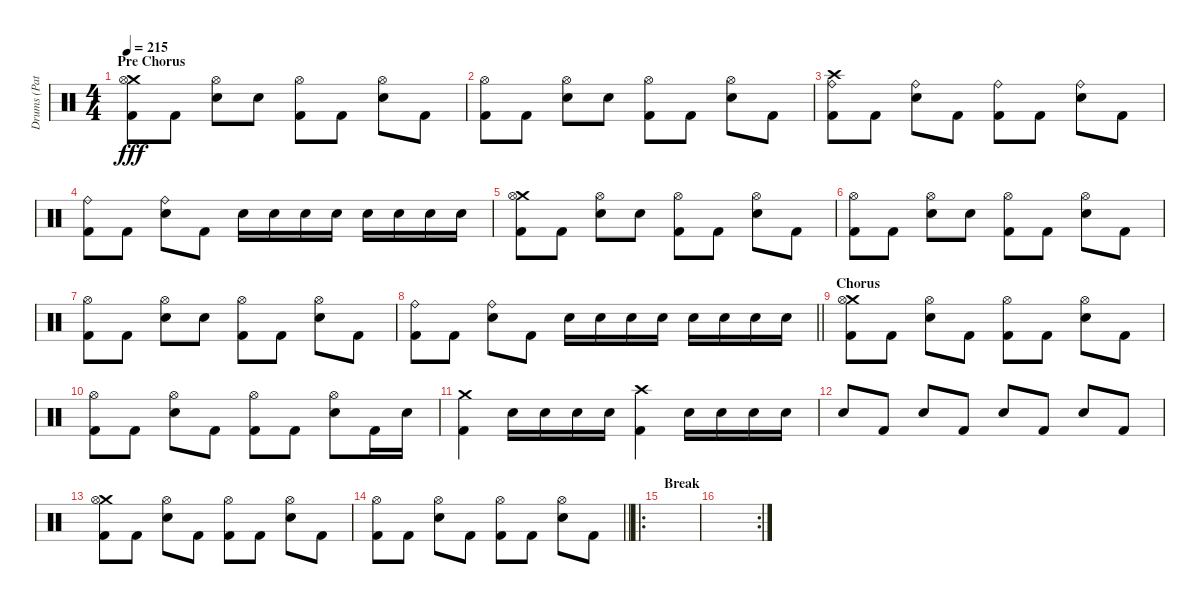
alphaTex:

\track ("Drums (Pat Thetic)" "Drums (Pat") {instrument percussion}
\staff {score}
\articulation defaults
\ts (4 4)
\section ("" "Pre Chorus")
\tempo 215
\clef neutral
\ks c
("Crash medium (hit)" "Hi-Hat (open)" "Kick (hit) 2").8{dy fff} "Kick (hit) 2".8 ("Hi-Hat (open)" "Snare (hit) 2").8 "Snare (hit) 2".8 ("Hi-Hat (open)" "Kick (hit) 2").8 "Kick (hit) 2".8 ("Hi-Hat (open)" "Snare (hit) 2").8 "Kick (hit) 2".8 |
("Hi-Hat (open)" "Kick (hit) 2").8 "Kick (hit) 2".8 ("Hi-Hat (open)" "Snare (hit) 2").8 "Snare (hit) 2".8 ("Hi-Hat (open)" "Kick (hit) 2").8 "Kick (hit) 2".8 ("Hi-Hat (open)" "Snare (hit) 2").8 "Kick (hit) 2".8 |
("Crash high (hit)" "Ride (bell)" "Kick (hit) 2").8 "Kick (hit) 2".8 ("Ride (bell)" "Snare (hit) 2").8 "Kick (hit) 2".8 ("Ride (bell)" "Kick (hit) 2").8 "Kick (hit) 2".8 ("Ride (bell)" "Snare (hit) 2").8 "Kick (hit) 2".8 |
("Ride (bell)" "Kick (hit) 2").8 "Kick (hit) 2".8 ("Ride (bell)" "Snare (hit) 2").8 "Kick (hit) 2".8 "Snare (hit) 2".16 "Snare (hit) 2".16 "Snare (hit) 2".16 "Snare (hit) 2".16 "Snare (hit) 2".16 "Snare (hit) 2".16 "Snare (hit) 2".16 "Snare (hit) 2".16 |
("Crash medium (hit)" "Hi-Hat (open)" "Kick (hit) 2").8 "Kick (hit) 2".8 ("Hi-Hat (open)" "Snare (hit) 2").8 "Snare (hit) 2".8 ("Hi-Hat (open)" "Kick (hit) 2").8 "Kick (hit) 2".8 ("Hi-Hat (open)" "Snare (hit) 2").8 "Kick (hit) 2".8 |
("Hi-Hat (open)" "Kick (hit) 2").8 "Kick (hit) 2".8 ("Hi-Hat (open)" "Snare (hit) 2").8 "Snare (hit) 2".8 ("Hi-Hat (open)" "Kick (hit) 2").8 "Kick (hit) 2".8 ("Hi-Hat (open)" "Snare (hit) 2").8 "Kick (hit) 2".8 |
("Hi-Hat (open)" "Kick (hit) 2").8 "Kick (hit) 2".8 ("Hi-Hat (open)" "Snare (hit) 2").8 "Snare (hit) 2".8 ("Hi-Hat (open)" "Kick (hit) 2").8 "Kick (hit) 2".8 ("Hi-Hat (open)" "Snare (hit) 2").8 "Kick (hit) 2".8 |
\barLineRight lightlight
("Ride (bell)" "Kick (hit) 2").8 "Kick (hit) 2".8 ("Ride (bell)" "Snare (hit) 2").8 "Kick (hit) 2".8 "Snare (hit) 2".16 "Snare (hit) 2".16 "Snare (hit) 2".16 "Snare (hit) 2".16 "Snare (hit) 2".16 "Snare (hit) 2".16 "Snare (hit) 2".16 "Snare (hit) 2".16 |
\section ("" "Chorus")
("Crash medium (hit)" "Hi-Hat (open)" "Kick (hit) 2").8 "Kick (hit) 2".8 ("Hi-Hat (open)" "Snare (hit) 2").8 "Kick (hit) 2".8 ("Hi-Hat (open)" "Kick (hit) 2").8 "Kick (hit) 2".8 ("Hi-Hat (open)" "Snare (hit) 2").8 "Kick (hit) 2".8 |
("Hi-Hat (open)" "Kick (hit) 2").8 "Kick (hit) 2".8 ("Hi-Hat (open)" "Snare (hit) 2").8 "Kick (hit) 2".8 ("Hi-Hat (open)" "Kick (hit) 2").8 "Kick (hit) 2".8 ("Hi-Hat (open)" "Snare (hit) 2").8 "Kick (hit) 2".16 "Snare (hit) 2".16 |
("Crash medium (hit)" "Kick (hit) 2").4 "Snare (hit) 2".16 "Snare (hit) 2".16 "Snare (hit) 2".16 "Snare (hit) 2".16 ("Crash high (hit)" "Kick (hit) 2").4 "Snare (hit) 2".16 "Snare (hit) 2".16 "Snare (hit) 2".16 "Snare (hit) 2".16 |
"Snare (hit) 2".8 "Kick (hit) 2".8 "Snare (hit) 2".8 "Kick (hit) 2".8 "Snare (hit) 2".8 "Kick (hit) 2".8 "Snare (hit) 2".8 "Kick (hit) 2".8 |
("Crash medium (hit)" "Hi-Hat (open)" "Kick (hit) 2").8 "Kick (hit) 2".8 ("Hi-Hat (open)" "Snare (hit) 2").8 "Kick (hit) 2".8 ("Hi-Hat (open)" "Kick (hit) 2").8 "Kick (hit) 2".8 ("Hi-Hat (open)" "Snare (hit) 2").8 "Kick (hit) 2".8 |
\barLineRight lightlight
("Hi-Hat (open)" "Kick (hit) 2").8 "Kick (hit) 2".8 ("Hi-Hat (open)" "Snare (hit) 2").8 "Kick (hit) 2".8 ("Hi-Hat (open)" "Kick (hit) 2").8 "Kick (hit) 2".8 ("Hi-Hat (open)" "Snare (hit) 2").8 "Kick (hit) 2".8 |
\ro
\section ("" "Break")
|
\rc 2
